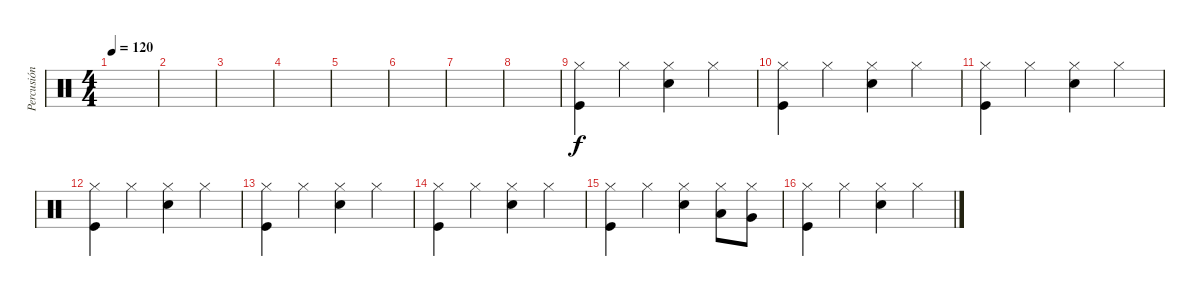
\track ("Percusión" "Percusión") {instrument percussion}
\staff {score}
\articulation defaults
\ts (4 4)
\tempo 120
\clef neutral
\ks c
|
|
|
|
|
|
|
|
("Hi-Hat (closed)" "Kick (hit)").4 "Hi-Hat (closed)".4 ("Hi-Hat (closed)" "Snare (hit) 2").4 "Hi-Hat (closed)".4 |
("Hi-Hat (closed)" "Kick (hit)").4 "Hi-Hat (closed)".4 ("Hi-Hat (closed)" "Snare (hit) 2").4 "Hi-Hat (closed)".4 |
("Hi-Hat (closed)" "Kick (hit)").4 "Hi-Hat (closed)".4 ("Hi-Hat (closed)" "Snare (hit) 2").4 "Hi-Hat (closed)".4 |
("Hi-Hat (closed)" "Kick (hit)").4 "Hi-Hat (closed)".4 ("Hi-Hat (closed)" "Snare (hit) 2").4 "Hi-Hat (closed)".4 |
("Hi-Hat (closed)" "Kick (hit)").4 "Hi-Hat (closed)".4 ("Hi-Hat (closed)" "Snare (hit) 2").4 "Hi-Hat (closed)".4 |
("Hi-Hat (closed)" "Kick (hit)").4 "Hi-Hat (closed)".4 ("Hi-Hat (closed)" "Snare (hit) 2").4 "Hi-Hat (closed)".4 |
("Hi-Hat (closed)" "Kick (hit)").4 "Hi-Hat (closed)".4 ("Hi-Hat (closed)" "Snare (hit) 2").4 ("Hi-Hat (closed)" "Low Floor Tom (hit)").8 ("Hi-Hat (closed)" "Very Low Tom (hit)").8 |
("Hi-Hat (closed)" "Kick (hit)").4 "Hi-Hat (closed)".4 ("Hi-Hat (closed)" "Snare (hit) 2").4 "Hi-Hat (closed)".4
